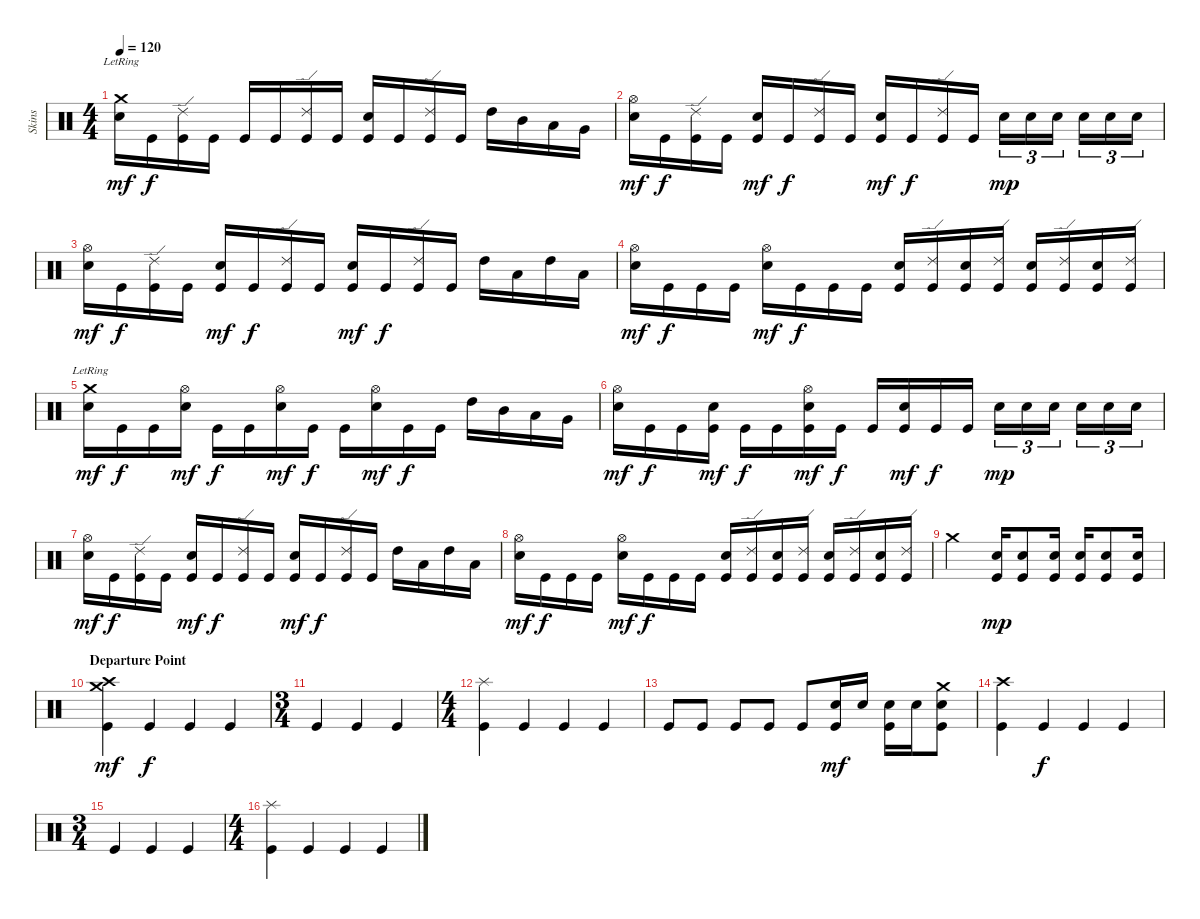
\track ("Skins" "Skins") {instrument percussion}
\staff {score}
\articulation defaults
\ts (4 4)
\tempo 120
\clef neutral
\ks c
("Crash medium (hit)"{lr} "Electric Snare (hit)").16{dy mf} "Kick (hit)".16{dy f} ("Ride (edge) 2" "Kick (hit)").16 "Kick (hit)".16 "Kick (hit)".16 "Kick (hit)".16 ("Ride (edge) 2" "Kick (hit)").16 "Kick (hit)".16 ("Snare (hit) 2" "Kick (hit)").16 "Kick (hit)".16 ("Ride (edge) 2" "Kick (hit)").16 "Kick (hit)".16 "High Tom (hit)".16 "Mid Tom (hit)".16 "Low Tom (hit)".16 "Very Low Tom (hit)".16 |
("Hi-Hat (open)" "Electric Snare (hit)").16{dy mf} "Kick (hit)".16{dy f} ("Ride (edge) 2" "Kick (hit)").16 "Kick (hit)".16 ("Snare (hit) 2" "Kick (hit)").16{dy mf} "Kick (hit)".16{dy f} ("Ride (edge) 2" "Kick (hit)").16 "Kick (hit)".16 ("Snare (hit) 2" "Kick (hit)").16{dy mf} "Kick (hit)".16{dy f} ("Ride (edge) 2" "Kick (hit)").16 "Kick (hit)".16 "Snare (hit) 2".16{tu (3 2) dy mp} "Snare (hit) 2".16{tu (3 2)} "Snare (hit) 2".16{tu (3 2)} "Snare (hit) 2".16{tu (3 2)} "Snare (hit) 2".16{tu (3 2)} "Snare (hit) 2".16{tu (3 2)} |
("Hi-Hat (open)" "Electric Snare (hit)").16{dy mf} "Kick (hit)".16{dy f} ("Ride (edge) 2" "Kick (hit)").16 "Kick (hit)".16 ("Snare (hit) 2" "Kick (hit)").16{dy mf} "Kick (hit)".16{dy f} ("Ride (edge) 2" "Kick (hit)").16 "Kick (hit)".16 ("Snare (hit) 2" "Kick (hit)").16{dy mf} "Kick (hit)".16{dy f} ("Ride (edge) 2" "Kick (hit)").16 "Kick (hit)".16 "High Tom (hit)".16 "Low Tom (hit)".16 "High Tom (hit)".16 "Low Tom (hit)".16 |
("Hi-Hat (open)" "Electric Snare (hit)").16{dy mf} "Kick (hit)".16{dy f} "Kick (hit)".16 "Kick (hit)".16 ("Hi-Hat (open)" "Electric Snare (hit)").16{dy mf} "Kick (hit)".16{dy f} "Kick (hit)".16 "Kick (hit)".16 ("Snare (hit) 2" "Kick (hit)").16 ("Ride (edge) 2" "Kick (hit)").16 ("Snare (hit) 2" "Kick (hit)").16 ("Ride (edge) 2" "Kick (hit)").16 ("Snare (hit) 2" "Kick (hit)").16 ("Ride (edge) 2" "Kick (hit)").16 ("Snare (hit) 2" "Kick (hit)").16 ("Ride (edge) 2" "Kick (hit)").16 |
("Crash medium (hit)"{lr} "Electric Snare (hit)").16{dy mf} "Kick (hit)".16{dy f} "Kick (hit)".16 ("Hi-Hat (open)" "Electric Snare (hit)").16{dy mf} "Kick (hit)".16{dy f} "Kick (hit)".16 ("Hi-Hat (open)" "Electric Snare (hit)").16{dy mf} "Kick (hit)".16{dy f} "Kick (hit)".16 ("Hi-Hat (open)" "Electric Snare (hit)").16{dy mf} "Kick (hit)".16{dy f} "Kick (hit)".16 "High Tom (hit)".16 "Mid Tom (hit)".16 "Low Tom (hit)".16 "Very Low Tom (hit)".16 |
("Hi-Hat (open)" "Electric Snare (hit)").16{dy mf} "Kick (hit)".16{dy f} "Kick (hit)".16 ("Electric Snare (hit)" "Kick (hit)").16{dy mf} "Kick (hit)".16{dy f} "Kick (hit)".16 ("Hi-Hat (open)" "Electric Snare (hit)" "Kick (hit)").16{dy mf} "Kick (hit)".16{dy f} "Kick (hit)".16 ("Electric Snare (hit)" "Kick (hit)").16{dy mf} "Kick (hit)".16{dy f} "Kick (hit)".16 "Snare (hit) 2".16{tu (3 2) dy mp} "Snare (hit) 2".16{tu (3 2)} "Snare (hit) 2".16{tu (3 2)} "Snare (hit) 2".16{tu (3 2)} "Snare (hit) 2".16{tu (3 2)} "Snare (hit) 2".16{tu (3 2)} |
("Hi-Hat (open)" "Electric Snare (hit)").16{dy mf} "Kick (hit)".16{dy f} ("Ride (edge) 2" "Kick (hit)").16 "Kick (hit)".16 ("Snare (hit) 2" "Kick (hit)").16{dy mf} "Kick (hit)".16{dy f} ("Ride (edge) 2" "Kick (hit)").16 "Kick (hit)".16 ("Snare (hit) 2" "Kick (hit)").16{dy mf} "Kick (hit)".16{dy f} ("Ride (edge) 2" "Kick (hit)").16 "Kick (hit)".16 "High Tom (hit)".16 "Low Tom (hit)".16 "High Tom (hit)".16 "Low Tom (hit)".16 |
("Hi-Hat (open)" "Electric Snare (hit)").16{dy mf} "Kick (hit)".16{dy f} "Kick (hit)".16 "Kick (hit)".16 ("Hi-Hat (open)" "Electric Snare (hit)").16{dy mf} "Kick (hit)".16{dy f} "Kick (hit)".16 "Kick (hit)".16 ("Snare (hit) 2" "Kick (hit)").16 ("Ride (edge) 2" "Kick (hit)").16 ("Snare (hit) 2" "Kick (hit)").16 ("Ride (edge) 2" "Kick (hit)").16 ("Snare (hit) 2" "Kick (hit)").16 ("Ride (edge) 2" "Kick (hit)").16 ("Snare (hit) 2" "Kick (hit)").16 ("Ride (edge) 2" "Kick (hit)").16 |
"Crash medium (hit)".2 ("Snare (hit) 2" "Kick (hit)").16{dy mp} ("Snare (hit) 2" "Kick (hit)").8 ("Snare (hit) 2" "Kick (hit)").16 ("Snare (hit) 2" "Kick (hit)").16 ("Snare (hit) 2" "Kick (hit)").8 ("Snare (hit) 2" "Kick (hit)").16 |
\section ("" "Departure Point")
("Crash high (hit)" "Crash medium (hit)" "Kick (hit)").4{dy mf volume 14} "Kick (hit)".4{dy f} "Kick (hit)".4 "Kick (hit)".4 |
\ts (3 4)
"Kick (hit)".4 "Kick (hit)".4 "Kick (hit)".4 |
\ts (4 4)
("Splash (hit)" "Kick (hit)").4 "Kick (hit)".4 "Kick (hit)".4 "Kick (hit)".4 |
"Kick (hit)".8 "Kick (hit)".8 "Kick (hit)".8 "Kick (hit)".8 "Kick (hit)".8 ("Snare (hit) 2" "Kick (hit)").16{dy mf} "Snare (hit) 2".16 ("Snare (hit) 2" "Kick (hit)").16 "Snare (hit) 2".16 ("Crash medium (hit)" "Snare (hit) 2" "Kick (hit)").8 |
("Crash high (hit)" "Kick (hit)").4 "Kick (hit)".4{dy f} "Kick (hit)".4 "Kick (hit)".4 |
\ts (3 4)
"Kick (hit)".4 "Kick (hit)".4 "Kick (hit)".4 |
\ts (4 4)
("Splash (hit)" "Kick (hit)").4 "Kick (hit)".4 "Kick (hit)".4 "Kick (hit)".4
